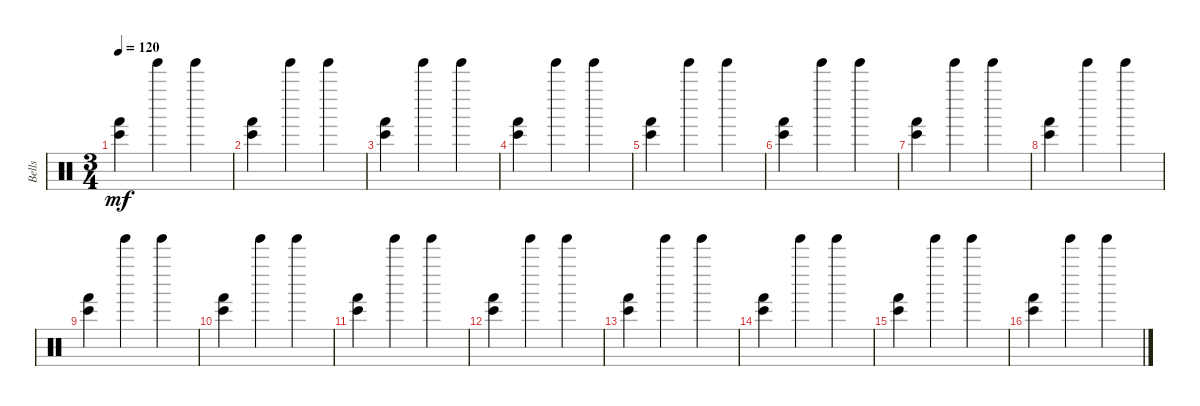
\track ("Bells" "Bells") {instrument percussion}
\staff {score}
\articulation defaults
\ts (3 4)
\tempo 120
\clef neutral
\ks c
("Hand (hit)" "Bongo High (hit)").4{dy mf} "Tinkle Bell (hit)".4 "Tinkle Bell (hit)".4 |
("Hand (hit)" "Bongo High (hit)").4 "Tinkle Bell (hit)".4 "Tinkle Bell (hit)".4 |
("Hand (hit)" "Bongo High (hit)").4 "Tinkle Bell (hit)".4 "Tinkle Bell (hit)".4 |
("Hand (hit)" "Bongo High (hit)").4 "Tinkle Bell (hit)".4 "Tinkle Bell (hit)".4 |
("Hand (hit)" "Bongo High (hit)").4 "Tinkle Bell (hit)".4 "Tinkle Bell (hit)".4 |
("Hand (hit)" "Bongo High (hit)").4 "Tinkle Bell (hit)".4 "Tinkle Bell (hit)".4 |
("Hand (hit)" "Bongo High (hit)").4 "Tinkle Bell (hit)".4 "Tinkle Bell (hit)".4 |
("Hand (hit)" "Bongo High (hit)").4 "Tinkle Bell (hit)".4 "Tinkle Bell (hit)".4 |
("Hand (hit)" "Bongo High (hit)").4 "Tinkle Bell (hit)".4 "Tinkle Bell (hit)".4 |
("Hand (hit)" "Bongo High (hit)").4 "Tinkle Bell (hit)".4 "Tinkle Bell (hit)".4 |
("Hand (hit)" "Bongo High (hit)").4 "Tinkle Bell (hit)".4 "Tinkle Bell (hit)".4 |
("Hand (hit)" "Bongo High (hit)").4 "Tinkle Bell (hit)".4 "Tinkle Bell (hit)".4 |
("Hand (hit)" "Bongo High (hit)").4 "Tinkle Bell (hit)".4 "Tinkle Bell (hit)".4 |
("Hand (hit)" "Bongo High (hit)").4 "Tinkle Bell (hit)".4 "Tinkle Bell (hit)".4 |
("Hand (hit)" "Bongo High (hit)").4 "Tinkle Bell (hit)".4 "Tinkle Bell (hit)".4 |
("Hand (hit)" "Bongo High (hit)").4 "Tinkle Bell (hit)".4 "Tinkle Bell (hit)".4
